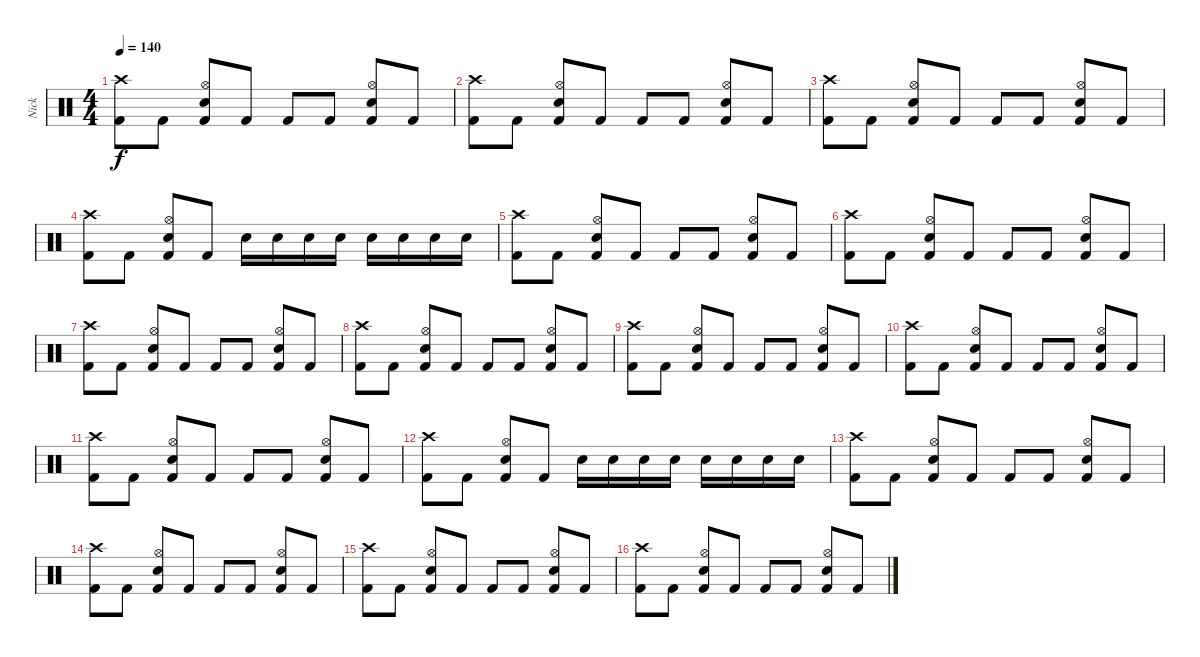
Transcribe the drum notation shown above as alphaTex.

\track ("Nick" "Nick") {instrument percussion}
\staff {score}
\articulation defaults
\ts (4 4)
\tempo 140
\clef neutral
\ks c
("Crash high (hit)" "Kick (hit) 2").8{dy f} "Kick (hit) 2".8 ("Hi-Hat (open)" "Snare (hit) 2" "Kick (hit) 2").8 "Kick (hit) 2".8 "Kick (hit) 2".8 "Kick (hit) 2".8 ("Hi-Hat (open)" "Snare (hit) 2" "Kick (hit) 2").8 "Kick (hit) 2".8 |
("Crash high (hit)" "Kick (hit) 2").8 "Kick (hit) 2".8 ("Hi-Hat (open)" "Snare (hit) 2" "Kick (hit) 2").8 "Kick (hit) 2".8 "Kick (hit) 2".8 "Kick (hit) 2".8 ("Hi-Hat (open)" "Snare (hit) 2" "Kick (hit) 2").8 "Kick (hit) 2".8 |
("Crash high (hit)" "Kick (hit) 2").8 "Kick (hit) 2".8 ("Hi-Hat (open)" "Snare (hit) 2" "Kick (hit) 2").8 "Kick (hit) 2".8 "Kick (hit) 2".8 "Kick (hit) 2".8 ("Hi-Hat (open)" "Snare (hit) 2" "Kick (hit) 2").8 "Kick (hit) 2".8 |
("Crash high (hit)" "Kick (hit) 2").8 "Kick (hit) 2".8 ("Hi-Hat (open)" "Snare (hit) 2" "Kick (hit) 2").8 "Kick (hit) 2".8 "Snare (hit) 2".16 "Snare (hit) 2".16 "Snare (hit) 2".16 "Snare (hit) 2".16 "Snare (hit) 2".16 "Snare (hit) 2".16 "Snare (hit) 2".16 "Snare (hit) 2".16 |
("Crash high (hit)" "Kick (hit) 2").8 "Kick (hit) 2".8 ("Hi-Hat (open)" "Snare (hit) 2" "Kick (hit) 2").8 "Kick (hit) 2".8 "Kick (hit) 2".8 "Kick (hit) 2".8 ("Hi-Hat (open)" "Snare (hit) 2" "Kick (hit) 2").8 "Kick (hit) 2".8 |
("Crash high (hit)" "Kick (hit) 2").8 "Kick (hit) 2".8 ("Hi-Hat (open)" "Snare (hit) 2" "Kick (hit) 2").8 "Kick (hit) 2".8 "Kick (hit) 2".8 "Kick (hit) 2".8 ("Hi-Hat (open)" "Snare (hit) 2" "Kick (hit) 2").8 "Kick (hit) 2".8 |
("Crash high (hit)" "Kick (hit) 2").8 "Kick (hit) 2".8 ("Hi-Hat (open)" "Snare (hit) 2" "Kick (hit) 2").8 "Kick (hit) 2".8 "Kick (hit) 2".8 "Kick (hit) 2".8 ("Hi-Hat (open)" "Snare (hit) 2" "Kick (hit) 2").8 "Kick (hit) 2".8 |
("Crash high (hit)" "Kick (hit) 2").8 "Kick (hit) 2".8 ("Hi-Hat (open)" "Snare (hit) 2" "Kick (hit) 2").8 "Kick (hit) 2".8 "Kick (hit) 2".8 "Kick (hit) 2".8 ("Hi-Hat (open)" "Snare (hit) 2" "Kick (hit) 2").8 "Kick (hit) 2".8 |
("Crash high (hit)" "Kick (hit) 2").8 "Kick (hit) 2".8 ("Hi-Hat (open)" "Snare (hit) 2" "Kick (hit) 2").8 "Kick (hit) 2".8 "Kick (hit) 2".8 "Kick (hit) 2".8 ("Hi-Hat (open)" "Snare (hit) 2" "Kick (hit) 2").8 "Kick (hit) 2".8 |
("Crash high (hit)" "Kick (hit) 2").8 "Kick (hit) 2".8 ("Hi-Hat (open)" "Snare (hit) 2" "Kick (hit) 2").8 "Kick (hit) 2".8 "Kick (hit) 2".8 "Kick (hit) 2".8 ("Hi-Hat (open)" "Snare (hit) 2" "Kick (hit) 2").8 "Kick (hit) 2".8 |
("Crash high (hit)" "Kick (hit) 2").8 "Kick (hit) 2".8 ("Hi-Hat (open)" "Snare (hit) 2" "Kick (hit) 2").8 "Kick (hit) 2".8 "Kick (hit) 2".8 "Kick (hit) 2".8 ("Hi-Hat (open)" "Snare (hit) 2" "Kick (hit) 2").8 "Kick (hit) 2".8 |
("Crash high (hit)" "Kick (hit) 2").8 "Kick (hit) 2".8 ("Hi-Hat (open)" "Snare (hit) 2" "Kick (hit) 2").8 "Kick (hit) 2".8 "Snare (hit) 2".16 "Snare (hit) 2".16 "Snare (hit) 2".16 "Snare (hit) 2".16 "Snare (hit) 2".16 "Snare (hit) 2".16 "Snare (hit) 2".16 "Snare (hit) 2".16 |
("Crash high (hit)" "Kick (hit) 2").8 "Kick (hit) 2".8 ("Hi-Hat (open)" "Snare (hit) 2" "Kick (hit) 2").8 "Kick (hit) 2".8 "Kick (hit) 2".8 "Kick (hit) 2".8 ("Hi-Hat (open)" "Snare (hit) 2" "Kick (hit) 2").8 "Kick (hit) 2".8 |
("Crash high (hit)" "Kick (hit) 2").8 "Kick (hit) 2".8 ("Hi-Hat (open)" "Snare (hit) 2" "Kick (hit) 2").8 "Kick (hit) 2".8 "Kick (hit) 2".8 "Kick (hit) 2".8 ("Hi-Hat (open)" "Snare (hit) 2" "Kick (hit) 2").8 "Kick (hit) 2".8 |
("Crash high (hit)" "Kick (hit) 2").8 "Kick (hit) 2".8 ("Hi-Hat (open)" "Snare (hit) 2" "Kick (hit) 2").8 "Kick (hit) 2".8 "Kick (hit) 2".8 "Kick (hit) 2".8 ("Hi-Hat (open)" "Snare (hit) 2" "Kick (hit) 2").8 "Kick (hit) 2".8 |
("Crash high (hit)" "Kick (hit) 2").8 "Kick (hit) 2".8 ("Hi-Hat (open)" "Snare (hit) 2" "Kick (hit) 2").8 "Kick (hit) 2".8 "Kick (hit) 2".8 "Kick (hit) 2".8 ("Hi-Hat (open)" "Snare (hit) 2" "Kick (hit) 2").8 "Kick (hit) 2".8
